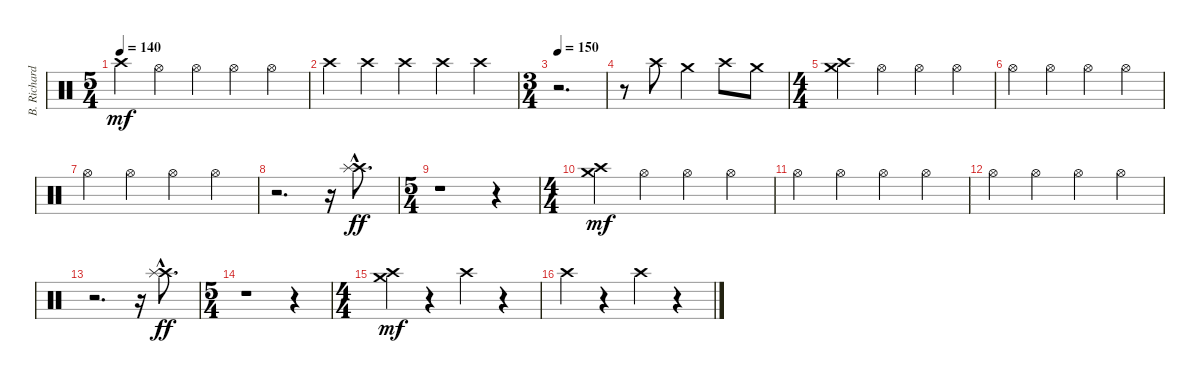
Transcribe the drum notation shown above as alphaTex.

\track ("B. Richardson Drums" "B. Richard") {instrument percussion}
\staff {score}
\articulation defaults
\ts (5 4)
\tempo 140
\clef neutral
\ks c "Crash high (hit)".4{dy mf} "Hi-Hat (open)".4 "Hi-Hat (open)".4 "Hi-Hat (open)".4 "Hi-Hat (open)".4
|
"Crash high (hit)".4 "Crash high (hit)".4 "Crash high (hit)".4 "Crash high (hit)".4 "Crash high (hit)".4 |
\ts (3 4)
\tempo 150
r.2{d} |
r.8 "Crash high (hit)".8 "Crash medium (hit)".4 "Crash high (hit)".8 "Crash medium (hit)".8 |
\ts (4 4)
("Crash high (hit)" "Crash medium (hit)").4 "Hi-Hat (open)".4 "Hi-Hat (open)".4 "Hi-Hat (open)".4 |
"Hi-Hat (open)".4 "Hi-Hat (open)".4 "Hi-Hat (open)".4 "Hi-Hat (open)".4 |
"Hi-Hat (open)".4 "Hi-Hat (open)".4 "Hi-Hat (open)".4 "Hi-Hat (open)".4 |
r.2{d} r.16 ("Crash high (hit)"{hac} "Splash (hit)"{hac}).8{d dy ff} |
\ts (5 4)
r.1 r.4 |
\ts (4 4)
("Crash high (hit)" "Crash medium (hit)").4{dy mf} "Hi-Hat (open)".4 "Hi-Hat (open)".4 "Hi-Hat (open)".4 |
"Hi-Hat (open)".4 "Hi-Hat (open)".4 "Hi-Hat (open)".4 "Hi-Hat (open)".4 |
"Hi-Hat (open)".4 "Hi-Hat (open)".4 "Hi-Hat (open)".4 "Hi-Hat (open)".4 |
r.2{d} r.16 ("Crash high (hit)"{hac} "Splash (hit)"{hac}).8{d dy ff} |
\ts (5 4)
r.1 r.4 |
\ts (4 4)
("Crash high (hit)" "Crash medium (hit)").4{dy mf} r.4 "Crash high (hit)".4 r.4 |
"Crash high (hit)".4 r.4 "Crash high (hit)".4 r.4
